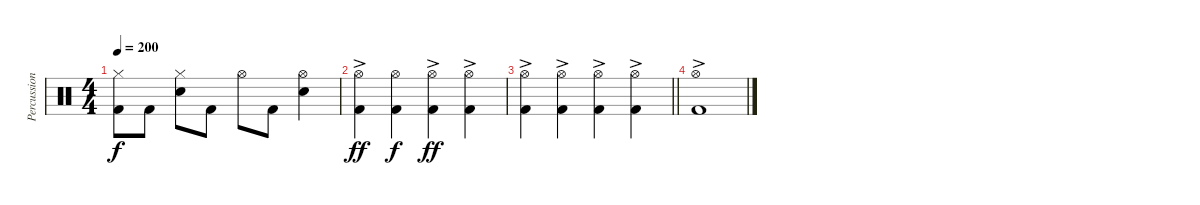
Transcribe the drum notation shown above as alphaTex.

\track ("Percussion" "Percussion") {instrument percussion}
\staff {score}
\articulation defaults
\ts (4 4)
\tempo 200
\clef neutral
\ks c
("Hi-Hat (closed)" "Kick (hit) 2").8{dy f} "Kick (hit) 2".8 ("Hi-Hat (closed)" "Snare (hit) 2").8 "Kick (hit) 2".8 "Hi-Hat (open)".8 "Kick (hit) 2".8 ("Hi-Hat (open)" "Snare (hit) 2").4 |
("Hi-Hat (open)"{ac} "Kick (hit) 2").4{dy ff} ("Hi-Hat (open)" "Kick (hit) 2").4{dy f} ("Hi-Hat (open)"{ac} "Kick (hit) 2").4{dy ff} ("Hi-Hat (open)"{ac} "Kick (hit) 2").4 |
\barLineRight lightlight
("Hi-Hat (open)"{ac} "Kick (hit) 2").4 ("Hi-Hat (open)"{ac} "Kick (hit) 2").4 ("Hi-Hat (open)"{ac} "Kick (hit) 2").4 ("Hi-Hat (open)"{ac} "Kick (hit) 2").4 |
("Hi-Hat (open)"{ac} "Kick (hit) 2").1
